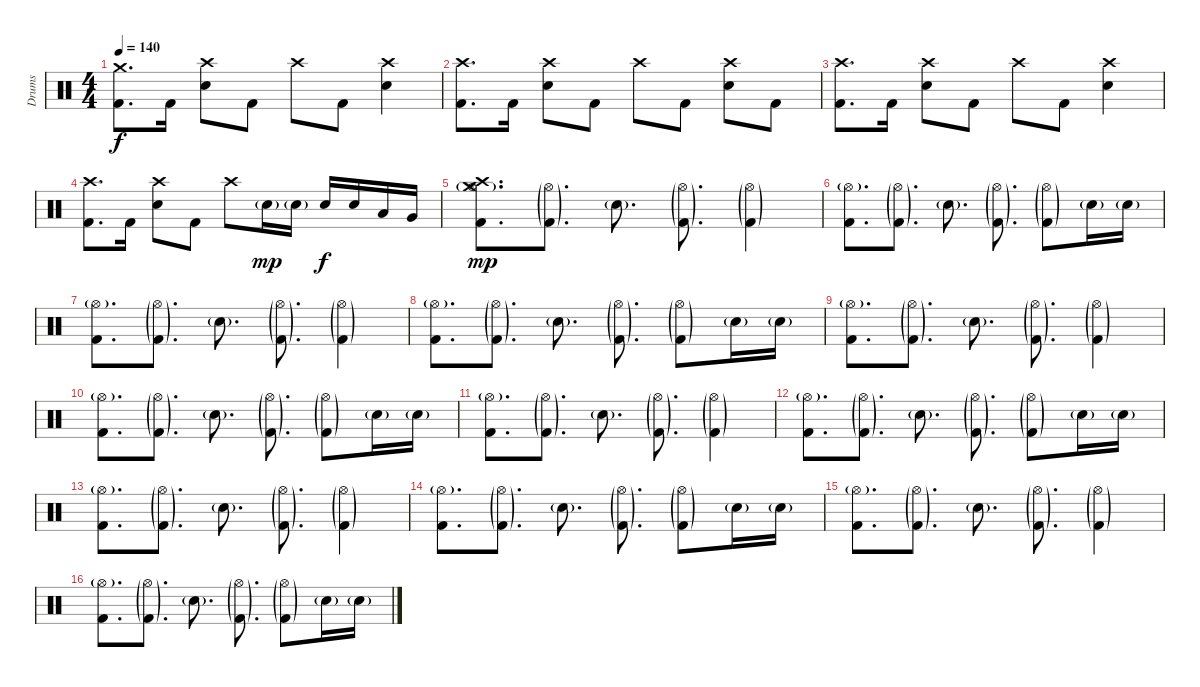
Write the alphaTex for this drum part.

\track ("Drums" "Drums") {instrument percussion}
\staff {score}
\articulation defaults
\ts (4 4)
\tempo 140
\clef neutral
\ks c
("Crash medium (hit)" "Kick (hit) 2").8{d dy f} "Kick (hit) 2".16 ("Crash high (hit)" "Electric Snare (hit)").8 "Kick (hit) 2".8 "Crash high (hit)".8 "Kick (hit) 2".8 ("Crash high (hit)" "Electric Snare (hit)").4 |
("Crash high (hit)" "Kick (hit) 2").8{d} "Kick (hit) 2".16 ("Crash high (hit)" "Electric Snare (hit)").8 "Kick (hit) 2".8 "Crash high (hit)".8 "Kick (hit) 2".8 ("Crash high (hit)" "Electric Snare (hit)").8 "Kick (hit) 2".8 |
("Crash high (hit)" "Kick (hit) 2").8{d} "Kick (hit) 2".16 ("Crash high (hit)" "Electric Snare (hit)").8 "Kick (hit) 2".8 "Crash high (hit)".8 "Kick (hit) 2".8 ("Crash high (hit)" "Electric Snare (hit)").4 |
("Crash high (hit)" "Kick (hit) 2").8{d} "Kick (hit) 2".16 ("Crash high (hit)" "Electric Snare (hit)").8 "Kick (hit) 2".8 "Crash high (hit)".8 "Electric Snare (hit)"{g}.16{dy mp} "Electric Snare (hit)"{g}.16 "Electric Snare (hit)".16{dy f} "Electric Snare (hit)".16 "Low Tom (hit)".16 "Very Low Tom (hit)".16 |
("Hi-Hat (open)"{g} "Crash medium (hit)" "Crash high (hit)" "Kick (hit) 2").8{d dy mp} ("Hi-Hat (open)"{g} "Kick (hit) 2"{g}).8{d} "Electric Snare (hit)"{g}.8{d} ("Hi-Hat (open)"{g} "Kick (hit) 2"{g}).8{d} ("Hi-Hat (open)"{g} "Kick (hit) 2"{g}).4 |
("Hi-Hat (open)"{g} "Kick (hit) 2").8{d} ("Hi-Hat (open)"{g} "Kick (hit) 2"{g}).8{d} "Electric Snare (hit)"{g}.8{d} ("Hi-Hat (open)"{g} "Kick (hit) 2"{g}).8{d} ("Hi-Hat (open)"{g} "Kick (hit) 2"{g}).8 "Electric Snare (hit)"{g}.16 "Electric Snare (hit)"{g}.16 |
("Hi-Hat (open)"{g} "Kick (hit) 2").8{d} ("Hi-Hat (open)"{g} "Kick (hit) 2"{g}).8{d} "Electric Snare (hit)"{g}.8{d} ("Hi-Hat (open)"{g} "Kick (hit) 2"{g}).8{d} ("Hi-Hat (open)"{g} "Kick (hit) 2"{g}).4 |
("Hi-Hat (open)"{g} "Kick (hit) 2").8{d} ("Hi-Hat (open)"{g} "Kick (hit) 2"{g}).8{d} "Electric Snare (hit)"{g}.8{d} ("Hi-Hat (open)"{g} "Kick (hit) 2"{g}).8{d} ("Hi-Hat (open)"{g} "Kick (hit) 2"{g}).8 "Electric Snare (hit)"{g}.16 "Electric Snare (hit)"{g}.16 |
("Hi-Hat (open)"{g} "Kick (hit) 2").8{d} ("Hi-Hat (open)"{g} "Kick (hit) 2"{g}).8{d} "Electric Snare (hit)"{g}.8{d} ("Hi-Hat (open)"{g} "Kick (hit) 2"{g}).8{d} ("Hi-Hat (open)"{g} "Kick (hit) 2"{g}).4 |
("Hi-Hat (open)"{g} "Kick (hit) 2").8{d} ("Hi-Hat (open)"{g} "Kick (hit) 2"{g}).8{d} "Electric Snare (hit)"{g}.8{d} ("Hi-Hat (open)"{g} "Kick (hit) 2"{g}).8{d} ("Hi-Hat (open)"{g} "Kick (hit) 2"{g}).8 "Electric Snare (hit)"{g}.16 "Electric Snare (hit)"{g}.16 |
("Hi-Hat (open)"{g} "Kick (hit) 2").8{d} ("Hi-Hat (open)"{g} "Kick (hit) 2"{g}).8{d} "Electric Snare (hit)"{g}.8{d} ("Hi-Hat (open)"{g} "Kick (hit) 2"{g}).8{d} ("Hi-Hat (open)"{g} "Kick (hit) 2"{g}).4 |
("Hi-Hat (open)"{g} "Kick (hit) 2").8{d} ("Hi-Hat (open)"{g} "Kick (hit) 2"{g}).8{d} "Electric Snare (hit)"{g}.8{d} ("Hi-Hat (open)"{g} "Kick (hit) 2"{g}).8{d} ("Hi-Hat (open)"{g} "Kick (hit) 2"{g}).8 "Electric Snare (hit)"{g}.16 "Electric Snare (hit)"{g}.16 |
("Hi-Hat (open)"{g} "Kick (hit) 2").8{d} ("Hi-Hat (open)"{g} "Kick (hit) 2"{g}).8{d} "Electric Snare (hit)"{g}.8{d} ("Hi-Hat (open)"{g} "Kick (hit) 2"{g}).8{d} ("Hi-Hat (open)"{g} "Kick (hit) 2"{g}).4 |
("Hi-Hat (open)"{g} "Kick (hit) 2").8{d} ("Hi-Hat (open)"{g} "Kick (hit) 2"{g}).8{d} "Electric Snare (hit)"{g}.8{d} ("Hi-Hat (open)"{g} "Kick (hit) 2"{g}).8{d} ("Hi-Hat (open)"{g} "Kick (hit) 2"{g}).8 "Electric Snare (hit)"{g}.16 "Electric Snare (hit)"{g}.16 |
("Hi-Hat (open)"{g} "Kick (hit) 2").8{d} ("Hi-Hat (open)"{g} "Kick (hit) 2"{g}).8{d} "Electric Snare (hit)"{g}.8{d} ("Hi-Hat (open)"{g} "Kick (hit) 2"{g}).8{d} ("Hi-Hat (open)"{g} "Kick (hit) 2"{g}).4 |
("Hi-Hat (open)"{g} "Kick (hit) 2").8{d} ("Hi-Hat (open)"{g} "Kick (hit) 2"{g}).8{d} "Electric Snare (hit)"{g}.8{d} ("Hi-Hat (open)"{g} "Kick (hit) 2"{g}).8{d} ("Hi-Hat (open)"{g} "Kick (hit) 2"{g}).8 "Electric Snare (hit)"{g}.16 "Electric Snare (hit)"{g}.16
